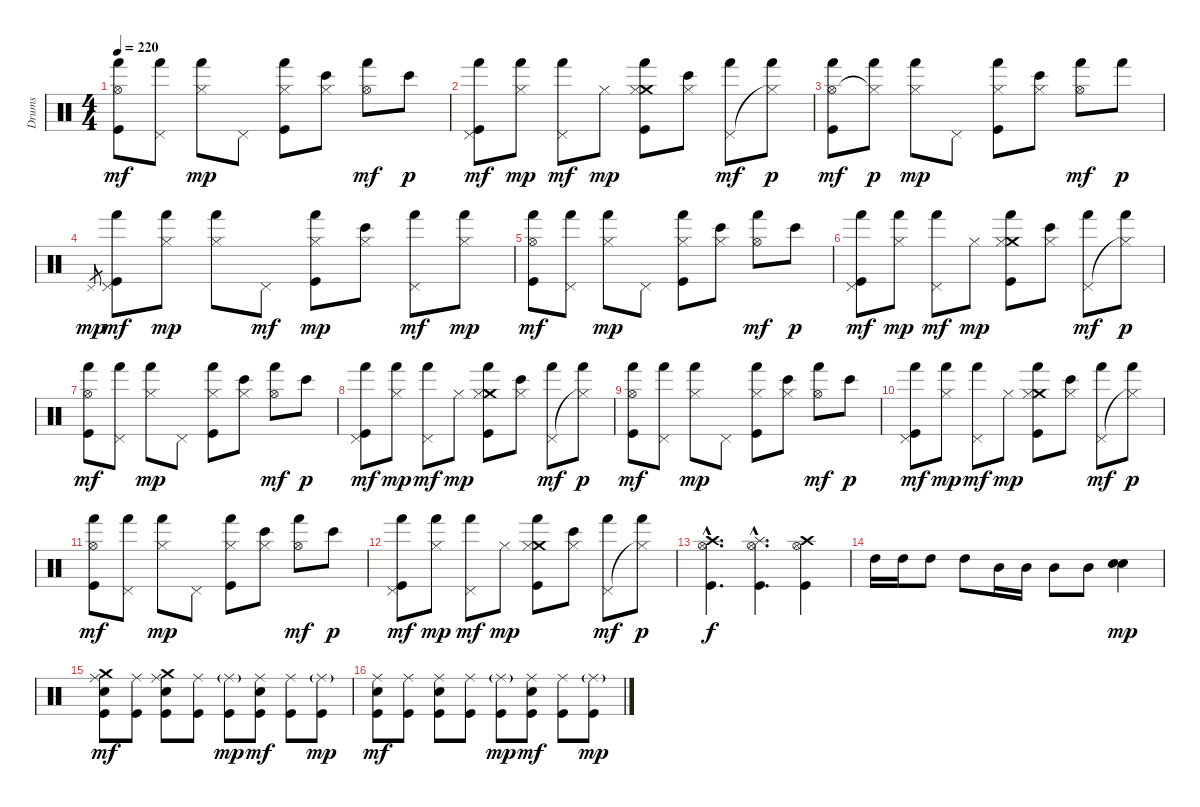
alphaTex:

\track ("Drums" "Drums") {instrument percussion}
\staff {score}
\articulation defaults
\ts (4 4)
\tempo 220
\clef neutral
\ks c
("Hand (hit)" "Hi-Hat (open)" "Kick (hit)").8{dy mf} ("Hand (hit)" "Pedal Hi-Hat (hit)").8 ("Hand (hit)" "Hi-Hat (closed)").8{dy mp} "Pedal Hi-Hat (hit)".8 ("Hand (hit)" "Hi-Hat (closed)" "Kick (hit)").8 ("Bongo High (hit)" "Hi-Hat (closed)").8 ("Hand (hit)" "Hi-Hat (open)").8{dy mf} "Bongo High (hit)".8{dy p} |
("Hand (hit)" "Pedal Hi-Hat (hit)" "Kick (hit)").8{dy mf} ("Hand (hit)" "Hi-Hat (closed)").8{dy mp} ("Hand (hit)" "Pedal Hi-Hat (hit)").8{dy mf} "Hi-Hat (closed)".8{dy mp} ("Hand (hit)" "Crash medium (hit)" "Hi-Hat (closed)" "Kick (hit)").8 ("Bongo High (hit)" "Hi-Hat (closed)").8 ("Hand (hit)" "Pedal Hi-Hat (hit)").8{dy mf} ("Hand (hit)" "Hi-Hat (closed)"{t}).8{dy p} |
("Hand (hit)" "Hi-Hat (open)" "Kick (hit)").8{dy mf} ("Hand (hit)" "Hi-Hat (closed)"{t}).8{dy p} ("Hand (hit)" "Hi-Hat (closed)").8{dy mp} "Pedal Hi-Hat (hit)".8 ("Hand (hit)" "Hi-Hat (closed)" "Kick (hit)").8 ("Bongo High (hit)" "Hi-Hat (closed)").8 ("Hand (hit)" "Hi-Hat (open)").8{dy mf} "Hand (hit)".8{dy p} |
"Pedal Hi-Hat (hit)".8{gr dy mp} ("Hand (hit)" "Pedal Hi-Hat (hit)" "Kick (hit)").8{dy mf} ("Hand (hit)" "Hi-Hat (closed)").8{dy mp} ("Hand (hit)" "Hi-Hat (closed)").8 "Pedal Hi-Hat (hit)".8{dy mf} ("Hand (hit)" "Hi-Hat (closed)" "Kick (hit)").8{dy mp} ("Bongo High (hit)" "Hi-Hat (closed)").8 ("Hand (hit)" "Pedal Hi-Hat (hit)").8{dy mf} ("Hand (hit)" "Hi-Hat (closed)").8{dy mp} |
("Hand (hit)" "Hi-Hat (open)" "Kick (hit)").8{dy mf} ("Hand (hit)" "Pedal Hi-Hat (hit)").8 ("Hand (hit)" "Hi-Hat (closed)").8{dy mp} "Pedal Hi-Hat (hit)".8 ("Hand (hit)" "Hi-Hat (closed)" "Kick (hit)").8 ("Bongo High (hit)" "Hi-Hat (closed)").8 ("Hand (hit)" "Hi-Hat (open)").8{dy mf} "Bongo High (hit)".8{dy p} |
("Hand (hit)" "Pedal Hi-Hat (hit)" "Kick (hit)").8{dy mf} ("Hand (hit)" "Hi-Hat (closed)").8{dy mp} ("Hand (hit)" "Pedal Hi-Hat (hit)").8{dy mf} "Hi-Hat (closed)".8{dy mp} ("Hand (hit)" "Crash medium (hit)" "Hi-Hat (closed)" "Kick (hit)").8 ("Bongo High (hit)" "Hi-Hat (closed)").8 ("Hand (hit)" "Pedal Hi-Hat (hit)").8{dy mf} ("Hand (hit)" "Hi-Hat (closed)"{t}).8{dy p} |
("Hand (hit)" "Hi-Hat (open)" "Kick (hit)").8{dy mf} ("Hand (hit)" "Pedal Hi-Hat (hit)").8 ("Hand (hit)" "Hi-Hat (closed)").8{dy mp} "Pedal Hi-Hat (hit)".8 ("Hand (hit)" "Hi-Hat (closed)" "Kick (hit)").8 ("Bongo High (hit)" "Hi-Hat (closed)").8 ("Hand (hit)" "Hi-Hat (open)").8{dy mf} "Bongo High (hit)".8{dy p} |
("Hand (hit)" "Pedal Hi-Hat (hit)" "Kick (hit)").8{dy mf} ("Hand (hit)" "Hi-Hat (closed)").8{dy mp} ("Hand (hit)" "Pedal Hi-Hat (hit)").8{dy mf} "Hi-Hat (closed)".8{dy mp} ("Hand (hit)" "Crash medium (hit)" "Hi-Hat (closed)" "Kick (hit)").8 ("Bongo High (hit)" "Hi-Hat (closed)").8 ("Hand (hit)" "Pedal Hi-Hat (hit)").8{dy mf} ("Hand (hit)" "Hi-Hat (closed)"{t}).8{dy p} |
("Hand (hit)" "Hi-Hat (open)" "Kick (hit)").8{dy mf} ("Hand (hit)" "Pedal Hi-Hat (hit)").8 ("Hand (hit)" "Hi-Hat (closed)").8{dy mp} "Pedal Hi-Hat (hit)".8 ("Hand (hit)" "Hi-Hat (closed)" "Kick (hit)").8 ("Bongo High (hit)" "Hi-Hat (closed)").8 ("Hand (hit)" "Hi-Hat (open)").8{dy mf} "Bongo High (hit)".8{dy p} |
("Hand (hit)" "Pedal Hi-Hat (hit)" "Kick (hit)").8{dy mf} ("Hand (hit)" "Hi-Hat (closed)").8{dy mp} ("Hand (hit)" "Pedal Hi-Hat (hit)").8{dy mf} "Hi-Hat (closed)".8{dy mp} ("Hand (hit)" "Crash medium (hit)" "Hi-Hat (closed)" "Kick (hit)").8 ("Bongo High (hit)" "Hi-Hat (closed)").8 ("Hand (hit)" "Pedal Hi-Hat (hit)").8{dy mf} ("Hand (hit)" "Hi-Hat (closed)"{t}).8{dy p} |
("Hand (hit)" "Hi-Hat (open)" "Kick (hit)").8{dy mf} ("Hand (hit)" "Pedal Hi-Hat (hit)").8 ("Hand (hit)" "Hi-Hat (closed)").8{dy mp} "Pedal Hi-Hat (hit)".8 ("Hand (hit)" "Hi-Hat (closed)" "Kick (hit)").8 ("Bongo High (hit)" "Hi-Hat (closed)").8 ("Hand (hit)" "Hi-Hat (open)").8{dy mf} "Bongo High (hit)".8{dy p} |
("Hand (hit)" "Pedal Hi-Hat (hit)" "Kick (hit)").8{dy mf} ("Hand (hit)" "Hi-Hat (closed)").8{dy mp} ("Hand (hit)" "Pedal Hi-Hat (hit)").8{dy mf} "Hi-Hat (closed)".8{dy mp} ("Hand (hit)" "Crash medium (hit)" "Hi-Hat (closed)" "Kick (hit)").8 ("Bongo High (hit)" "Hi-Hat (closed)").8 ("Hand (hit)" "Pedal Hi-Hat (hit)").8{dy mf} ("Hand (hit)" "Hi-Hat (closed)"{t}).8{dy p} |
("Crash high (hit)"{hac} "Hi-Hat (open)"{hac} "Kick (hit)"{hac}).4{d dy f} ("Splash (hit)"{hac} "Hi-Hat (open)"{hac} "Kick (hit)"{hac}).4{d} ("Crash high (hit)" "Hi-Hat (open)" "Kick (hit)").4 |
"High Tom (hit)".16 "High Tom (hit)".16 "High Tom (hit)".8 "High Tom (hit)".8 "Mid Tom (hit)".16 "Mid Tom (hit)".16 "Mid Tom (hit)".8 "Mid Tom (hit)".8 ("Electric Snare (hit)" "Snare (hit) 2").4{dy mp} |
("Crash medium (hit)" "Ride (middle)" "Electric Snare (hit)" "Kick (hit)").8{dy mf} ("Ride (middle)" "Kick (hit)").8 ("Crash medium (hit)" "Ride (middle)" "Electric Snare (hit)" "Kick (hit)").8 ("Ride (middle)" "Kick (hit)").8 ("Ride (middle)"{g} "Kick (hit)").8{dy mp} ("Ride (middle)" "Electric Snare (hit)" "Kick (hit)").8{dy mf} ("Ride (middle)" "Kick (hit)").8 ("Ride (middle)"{g} "Kick (hit)").8{dy mp} |
("Ride (middle)" "Electric Snare (hit)" "Kick (hit)").8{dy mf} ("Ride (middle)" "Kick (hit)").8 ("Ride (middle)" "Electric Snare (hit)" "Kick (hit)").8 ("Ride (middle)" "Kick (hit)").8 ("Ride (middle)"{g} "Kick (hit)").8{dy mp} ("Ride (middle)" "Electric Snare (hit)" "Kick (hit)").8{dy mf} ("Ride (middle)" "Kick (hit)").8 ("Ride (middle)"{g} "Kick (hit)").8{dy mp}
